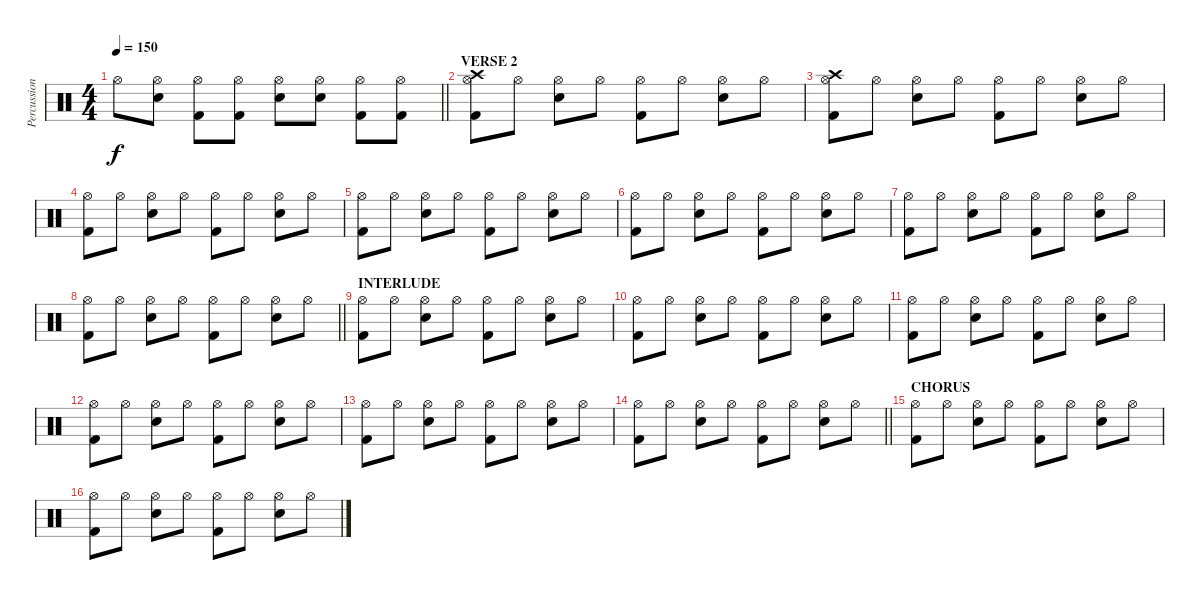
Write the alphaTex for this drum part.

\track ("Percussion" "Percussion") {solo instrument percussion}
\staff {score}
\articulation defaults
\ts (4 4)
\tempo 150
\clef neutral
\barLineRight lightlight
\ks c "Hi-Hat (open)".8{dy f}
("Hi-Hat (open)" "Snare (hit) 2").8 ("Hi-Hat (open)" "Kick (hit) 2").8 ("Hi-Hat (open)" "Kick (hit) 2").8 ("Hi-Hat (open)" "Snare (hit) 2").8 ("Hi-Hat (open)" "Snare (hit) 2").8 ("Hi-Hat (open)" "Kick (hit) 2").8 ("Hi-Hat (open)" "Kick (hit) 2").8 |
\section ("" "VERSE 2")
("Hi-Hat (open)" "Crash high (hit)" "Kick (hit) 2").8 "Hi-Hat (open)".8 ("Hi-Hat (open)" "Snare (hit) 2").8 "Hi-Hat (open)".8 ("Hi-Hat (open)" "Kick (hit) 2").8 "Hi-Hat (open)".8 ("Hi-Hat (open)" "Snare (hit) 2").8 "Hi-Hat (open)".8 |
("Hi-Hat (open)" "Crash high (hit)" "Kick (hit) 2").8 "Hi-Hat (open)".8 ("Hi-Hat (open)" "Snare (hit) 2").8 "Hi-Hat (open)".8 ("Hi-Hat (open)" "Kick (hit) 2").8 "Hi-Hat (open)".8 ("Hi-Hat (open)" "Snare (hit) 2").8 "Hi-Hat (open)".8 |
("Hi-Hat (open)" "Kick (hit) 2").8 "Hi-Hat (open)".8 ("Hi-Hat (open)" "Snare (hit) 2").8 "Hi-Hat (open)".8 ("Hi-Hat (open)" "Kick (hit) 2").8 "Hi-Hat (open)".8 ("Hi-Hat (open)" "Snare (hit) 2").8 "Hi-Hat (open)".8 |
("Hi-Hat (open)" "Kick (hit) 2").8 "Hi-Hat (open)".8 ("Hi-Hat (open)" "Snare (hit) 2").8 "Hi-Hat (open)".8 ("Hi-Hat (open)" "Kick (hit) 2").8 "Hi-Hat (open)".8 ("Hi-Hat (open)" "Snare (hit) 2").8 "Hi-Hat (open)".8 |
("Hi-Hat (open)" "Kick (hit) 2").8 "Hi-Hat (open)".8 ("Hi-Hat (open)" "Snare (hit) 2").8 "Hi-Hat (open)".8 ("Hi-Hat (open)" "Kick (hit) 2").8 "Hi-Hat (open)".8 ("Hi-Hat (open)" "Snare (hit) 2").8 "Hi-Hat (open)".8 |
("Hi-Hat (open)" "Kick (hit) 2").8 "Hi-Hat (open)".8 ("Hi-Hat (open)" "Snare (hit) 2").8 "Hi-Hat (open)".8 ("Hi-Hat (open)" "Kick (hit) 2").8 "Hi-Hat (open)".8 ("Hi-Hat (open)" "Snare (hit) 2").8 "Hi-Hat (open)".8 |
\barLineRight lightlight
("Hi-Hat (open)" "Kick (hit) 2").8 "Hi-Hat (open)".8 ("Hi-Hat (open)" "Snare (hit) 2").8 "Hi-Hat (open)".8 ("Hi-Hat (open)" "Kick (hit) 2").8 "Hi-Hat (open)".8 ("Hi-Hat (open)" "Snare (hit) 2").8 "Hi-Hat (open)".8 |
\section ("" "INTERLUDE")
("Hi-Hat (open)" "Kick (hit) 2").8 "Hi-Hat (open)".8 ("Hi-Hat (open)" "Snare (hit) 2").8 "Hi-Hat (open)".8 ("Hi-Hat (open)" "Kick (hit) 2").8 "Hi-Hat (open)".8 ("Hi-Hat (open)" "Snare (hit) 2").8 "Hi-Hat (open)".8 |
("Hi-Hat (open)" "Kick (hit) 2").8 "Hi-Hat (open)".8 ("Hi-Hat (open)" "Snare (hit) 2").8 "Hi-Hat (open)".8 ("Hi-Hat (open)" "Kick (hit) 2").8 "Hi-Hat (open)".8 ("Hi-Hat (open)" "Snare (hit) 2").8 "Hi-Hat (open)".8 |
("Hi-Hat (open)" "Kick (hit) 2").8 "Hi-Hat (open)".8 ("Hi-Hat (open)" "Snare (hit) 2").8 "Hi-Hat (open)".8 ("Hi-Hat (open)" "Kick (hit) 2").8 "Hi-Hat (open)".8 ("Hi-Hat (open)" "Snare (hit) 2").8 "Hi-Hat (open)".8 |
("Hi-Hat (open)" "Kick (hit) 2").8 "Hi-Hat (open)".8 ("Hi-Hat (open)" "Snare (hit) 2").8 "Hi-Hat (open)".8 ("Hi-Hat (open)" "Kick (hit) 2").8 "Hi-Hat (open)".8 ("Hi-Hat (open)" "Snare (hit) 2").8 "Hi-Hat (open)".8 |
("Hi-Hat (open)" "Kick (hit) 2").8 "Hi-Hat (open)".8 ("Hi-Hat (open)" "Snare (hit) 2").8 "Hi-Hat (open)".8 ("Hi-Hat (open)" "Kick (hit) 2").8 "Hi-Hat (open)".8 ("Hi-Hat (open)" "Snare (hit) 2").8 "Hi-Hat (open)".8 |
\barLineRight lightlight
("Hi-Hat (open)" "Kick (hit) 2").8 "Hi-Hat (open)".8 ("Hi-Hat (open)" "Snare (hit) 2").8 "Hi-Hat (open)".8 ("Hi-Hat (open)" "Kick (hit) 2").8 "Hi-Hat (open)".8 ("Hi-Hat (open)" "Snare (hit) 2").8 "Hi-Hat (open)".8 |
\section ("" "CHORUS")
("Hi-Hat (open)" "Kick (hit) 2").8 "Hi-Hat (open)".8 ("Hi-Hat (open)" "Snare (hit) 2").8 "Hi-Hat (open)".8 ("Hi-Hat (open)" "Kick (hit) 2").8 "Hi-Hat (open)".8 ("Hi-Hat (open)" "Snare (hit) 2").8 "Hi-Hat (open)".8 |
("Hi-Hat (open)" "Kick (hit) 2").8 "Hi-Hat (open)".8 ("Hi-Hat (open)" "Snare (hit) 2").8 "Hi-Hat (open)".8 ("Hi-Hat (open)" "Kick (hit) 2").8 "Hi-Hat (open)".8 ("Hi-Hat (open)" "Snare (hit) 2").8 "Hi-Hat (open)".8
